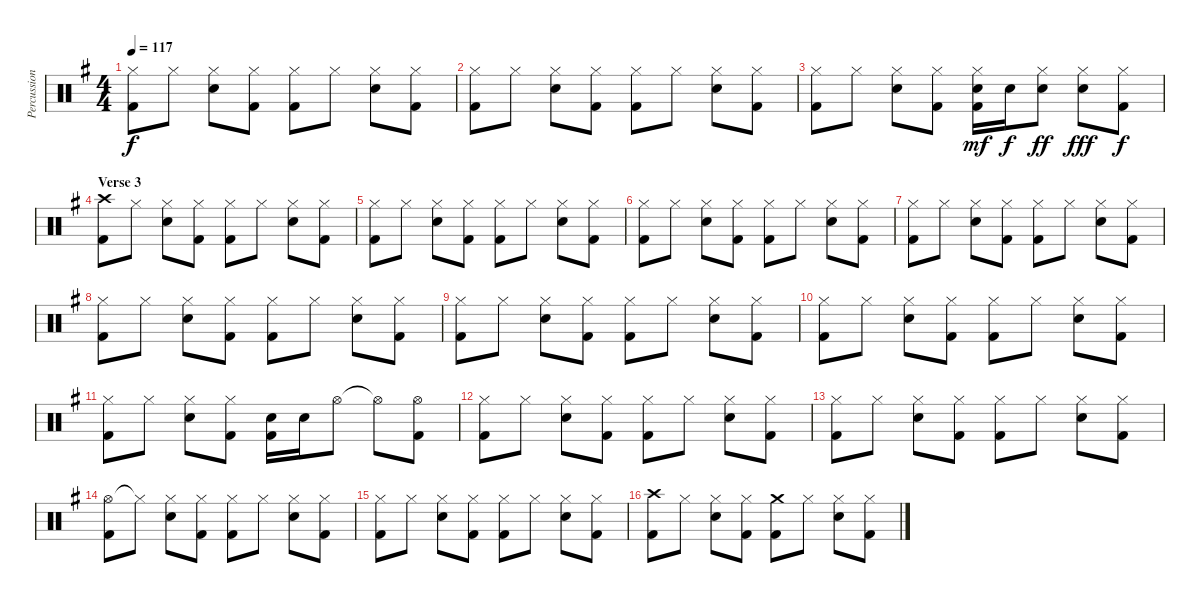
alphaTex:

\track ("Percussion" "Percussion") {instrument percussion}
\staff {score}
\articulation defaults
\ts (4 4)
\tempo 117
\clef neutral
\ks g
("Hi-Hat (closed)" "Kick (hit) 2").8{dy f} "Hi-Hat (closed)".8 ("Hi-Hat (closed)" "Electric Snare (hit)").8 ("Hi-Hat (closed)" "Kick (hit) 2").8 ("Hi-Hat (closed)" "Kick (hit) 2").8 "Hi-Hat (closed)".8 ("Hi-Hat (closed)" "Electric Snare (hit)").8 ("Hi-Hat (closed)" "Kick (hit) 2").8 |
("Hi-Hat (closed)" "Kick (hit) 2").8 "Hi-Hat (closed)".8 ("Hi-Hat (closed)" "Electric Snare (hit)").8 ("Hi-Hat (closed)" "Kick (hit) 2").8 ("Hi-Hat (closed)" "Kick (hit) 2").8 "Hi-Hat (closed)".8 ("Hi-Hat (closed)" "Electric Snare (hit)").8 ("Hi-Hat (closed)" "Kick (hit) 2").8 |
("Hi-Hat (closed)" "Kick (hit) 2").8 "Hi-Hat (closed)".8 ("Hi-Hat (closed)" "Electric Snare (hit)").8 ("Hi-Hat (closed)" "Kick (hit) 2").8 ("Hi-Hat (closed)" "Electric Snare (hit)" "Kick (hit) 2").16{dy mf} "Electric Snare (hit)".16{dy f} ("Hi-Hat (closed)" "Electric Snare (hit)").8{dy ff} ("Hi-Hat (closed)" "Electric Snare (hit)").8{dy fff} ("Hi-Hat (closed)" "Kick (hit) 2").8{dy f} |
\section ("" "Verse 3")
("Crash high (hit)" "Kick (hit) 2").8 "Hi-Hat (closed)".8 ("Hi-Hat (closed)" "Electric Snare (hit)").8 ("Hi-Hat (closed)" "Kick (hit) 2").8 ("Hi-Hat (closed)" "Kick (hit) 2").8 "Hi-Hat (closed)".8 ("Hi-Hat (closed)" "Electric Snare (hit)").8 ("Hi-Hat (closed)" "Kick (hit) 2").8 |
("Hi-Hat (closed)" "Kick (hit) 2").8 "Hi-Hat (closed)".8 ("Hi-Hat (closed)" "Electric Snare (hit)").8 ("Hi-Hat (closed)" "Kick (hit) 2").8 ("Hi-Hat (closed)" "Kick (hit) 2").8 "Hi-Hat (closed)".8 ("Hi-Hat (closed)" "Electric Snare (hit)").8 ("Hi-Hat (closed)" "Kick (hit) 2").8 |
("Hi-Hat (closed)" "Kick (hit) 2").8 "Hi-Hat (closed)".8 ("Hi-Hat (closed)" "Electric Snare (hit)").8 ("Hi-Hat (closed)" "Kick (hit) 2").8 ("Hi-Hat (closed)" "Kick (hit) 2").8 "Hi-Hat (closed)".8 ("Hi-Hat (closed)" "Electric Snare (hit)").8 ("Hi-Hat (closed)" "Kick (hit) 2").8 |
("Hi-Hat (closed)" "Kick (hit) 2").8 "Hi-Hat (closed)".8 ("Hi-Hat (closed)" "Electric Snare (hit)").8 ("Hi-Hat (closed)" "Kick (hit) 2").8 ("Hi-Hat (closed)" "Kick (hit) 2").8 "Hi-Hat (closed)".8 ("Hi-Hat (closed)" "Electric Snare (hit)").8 ("Hi-Hat (closed)" "Kick (hit) 2").8 |
("Hi-Hat (closed)" "Kick (hit) 2").8 "Hi-Hat (closed)".8 ("Hi-Hat (closed)" "Electric Snare (hit)").8 ("Hi-Hat (closed)" "Kick (hit) 2").8 ("Hi-Hat (closed)" "Kick (hit) 2").8 "Hi-Hat (closed)".8 ("Hi-Hat (closed)" "Electric Snare (hit)").8 ("Hi-Hat (closed)" "Kick (hit) 2").8 |
("Hi-Hat (closed)" "Kick (hit) 2").8 "Hi-Hat (closed)".8 ("Hi-Hat (closed)" "Electric Snare (hit)").8 ("Hi-Hat (closed)" "Kick (hit) 2").8 ("Hi-Hat (closed)" "Kick (hit) 2").8 "Hi-Hat (closed)".8 ("Hi-Hat (closed)" "Electric Snare (hit)").8 ("Hi-Hat (closed)" "Kick (hit) 2").8 |
("Hi-Hat (closed)" "Kick (hit) 2").8 "Hi-Hat (closed)".8 ("Hi-Hat (closed)" "Electric Snare (hit)").8 ("Hi-Hat (closed)" "Kick (hit) 2").8 ("Hi-Hat (closed)" "Kick (hit) 2").8 "Hi-Hat (closed)".8 ("Hi-Hat (closed)" "Electric Snare (hit)").8 ("Hi-Hat (closed)" "Kick (hit) 2").8 |
("Hi-Hat (closed)" "Kick (hit) 2").8 "Hi-Hat (closed)".8 ("Hi-Hat (closed)" "Electric Snare (hit)").8 ("Hi-Hat (closed)" "Kick (hit) 2").8 ("Electric Snare (hit)" "Kick (hit) 2").16 "Electric Snare (hit)".16 "Hi-Hat (open)".8 "Hi-Hat (open)"{t}.8 ("Hi-Hat (open)" "Kick (hit) 2").8 |
("Hi-Hat (closed)" "Kick (hit) 2").8 "Hi-Hat (closed)".8 ("Hi-Hat (closed)" "Electric Snare (hit)").8 ("Hi-Hat (closed)" "Kick (hit) 2").8 ("Hi-Hat (closed)" "Kick (hit) 2").8 "Hi-Hat (closed)".8 ("Hi-Hat (closed)" "Electric Snare (hit)").8 ("Hi-Hat (closed)" "Kick (hit) 2").8 |
("Hi-Hat (closed)" "Kick (hit) 2").8 "Hi-Hat (closed)".8 ("Hi-Hat (closed)" "Electric Snare (hit)").8 ("Hi-Hat (closed)" "Kick (hit) 2").8 ("Hi-Hat (closed)" "Kick (hit) 2").8 "Hi-Hat (closed)".8 ("Hi-Hat (closed)" "Electric Snare (hit)").8 ("Hi-Hat (closed)" "Kick (hit) 2").8 |
("Hi-Hat (open)" "Kick (hit) 2").8 "Hi-Hat (closed)"{t}.8 ("Hi-Hat (closed)" "Electric Snare (hit)").8 ("Hi-Hat (closed)" "Kick (hit) 2").8 ("Hi-Hat (closed)" "Kick (hit) 2").8 "Hi-Hat (closed)".8 ("Hi-Hat (closed)" "Electric Snare (hit)").8 ("Hi-Hat (closed)" "Kick (hit) 2").8 |
("Hi-Hat (closed)" "Kick (hit) 2").8 "Hi-Hat (closed)".8 ("Hi-Hat (closed)" "Electric Snare (hit)").8 ("Hi-Hat (closed)" "Kick (hit) 2").8 ("Hi-Hat (closed)" "Kick (hit) 2").8 "Hi-Hat (closed)".8 ("Hi-Hat (closed)" "Electric Snare (hit)").8 ("Hi-Hat (closed)" "Kick (hit) 2").8 |
("Crash high (hit)" "Kick (hit) 2").8 "Hi-Hat (closed)".8 ("Hi-Hat (closed)" "Electric Snare (hit)").8 ("Hi-Hat (closed)" "Kick (hit) 2").8 ("Crash medium (hit)" "Kick (hit) 2").8 "Hi-Hat (closed)".8 ("Hi-Hat (closed)" "Electric Snare (hit)").8 ("Hi-Hat (closed)" "Kick (hit) 2").8
